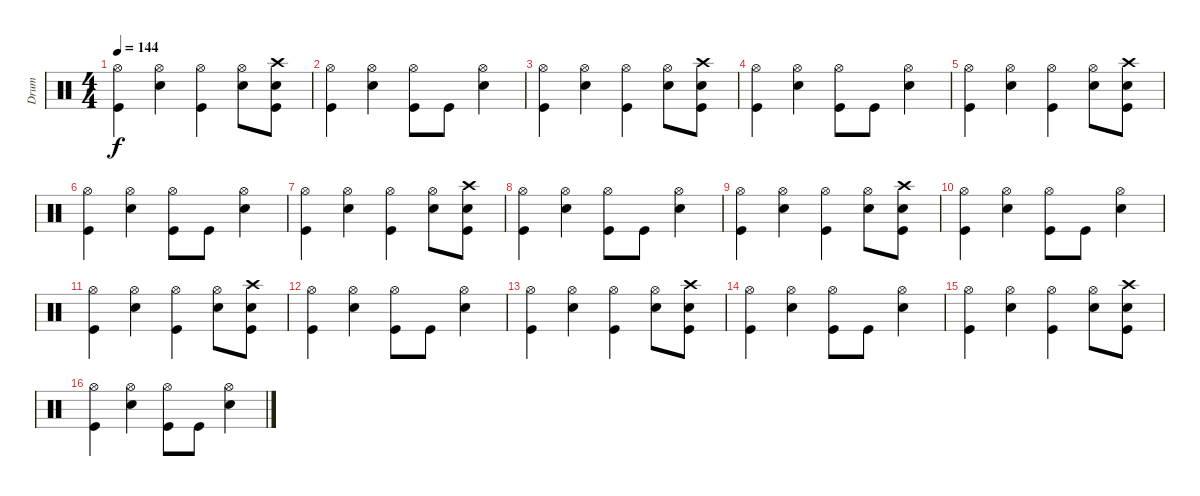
\track ("Drum" "Drum") {instrument percussion}
\staff {score}
\articulation defaults
\ts (4 4)
\tempo 144
\clef neutral
\ks c
("Hi-Hat (open)" "Kick (hit)").4{dy f} ("Hi-Hat (open)" "Electric Snare (hit)").4 ("Hi-Hat (open)" "Kick (hit)").4 ("Hi-Hat (open)" "Electric Snare (hit)").8 ("Crash high (hit)" "Electric Snare (hit)" "Kick (hit)").8 |
("Hi-Hat (open)" "Kick (hit)").4 ("Hi-Hat (open)" "Electric Snare (hit)").4 ("Hi-Hat (open)" "Kick (hit)").8 "Kick (hit)".8 ("Hi-Hat (open)" "Electric Snare (hit)").4 |
("Hi-Hat (open)" "Kick (hit)").4 ("Hi-Hat (open)" "Electric Snare (hit)").4 ("Hi-Hat (open)" "Kick (hit)").4 ("Hi-Hat (open)" "Electric Snare (hit)").8 ("Crash high (hit)" "Electric Snare (hit)" "Kick (hit)").8 |
("Hi-Hat (open)" "Kick (hit)").4 ("Hi-Hat (open)" "Electric Snare (hit)").4 ("Hi-Hat (open)" "Kick (hit)").8 "Kick (hit)".8 ("Hi-Hat (open)" "Electric Snare (hit)").4 |
("Hi-Hat (open)" "Kick (hit)").4 ("Hi-Hat (open)" "Electric Snare (hit)").4 ("Hi-Hat (open)" "Kick (hit)").4 ("Hi-Hat (open)" "Electric Snare (hit)").8 ("Crash high (hit)" "Electric Snare (hit)" "Kick (hit)").8 |
("Hi-Hat (open)" "Kick (hit)").4 ("Hi-Hat (open)" "Electric Snare (hit)").4 ("Hi-Hat (open)" "Kick (hit)").8 "Kick (hit)".8 ("Hi-Hat (open)" "Electric Snare (hit)").4 |
("Hi-Hat (open)" "Kick (hit)").4 ("Hi-Hat (open)" "Electric Snare (hit)").4 ("Hi-Hat (open)" "Kick (hit)").4 ("Hi-Hat (open)" "Electric Snare (hit)").8 ("Crash high (hit)" "Electric Snare (hit)" "Kick (hit)").8 |
("Hi-Hat (open)" "Kick (hit)").4 ("Hi-Hat (open)" "Electric Snare (hit)").4 ("Hi-Hat (open)" "Kick (hit)").8 "Kick (hit)".8 ("Hi-Hat (open)" "Electric Snare (hit)").4 |
("Hi-Hat (open)" "Kick (hit)").4 ("Hi-Hat (open)" "Electric Snare (hit)").4 ("Hi-Hat (open)" "Kick (hit)").4 ("Hi-Hat (open)" "Electric Snare (hit)").8 ("Crash high (hit)" "Electric Snare (hit)" "Kick (hit)").8 |
("Hi-Hat (open)" "Kick (hit)").4 ("Hi-Hat (open)" "Electric Snare (hit)").4 ("Hi-Hat (open)" "Kick (hit)").8 "Kick (hit)".8 ("Hi-Hat (open)" "Electric Snare (hit)").4 |
("Hi-Hat (open)" "Kick (hit)").4 ("Hi-Hat (open)" "Electric Snare (hit)").4 ("Hi-Hat (open)" "Kick (hit)").4 ("Hi-Hat (open)" "Electric Snare (hit)").8 ("Crash high (hit)" "Electric Snare (hit)" "Kick (hit)").8 |
("Hi-Hat (open)" "Kick (hit)").4 ("Hi-Hat (open)" "Electric Snare (hit)").4 ("Hi-Hat (open)" "Kick (hit)").8 "Kick (hit)".8 ("Hi-Hat (open)" "Electric Snare (hit)").4 |
("Hi-Hat (open)" "Kick (hit)").4 ("Hi-Hat (open)" "Electric Snare (hit)").4 ("Hi-Hat (open)" "Kick (hit)").4 ("Hi-Hat (open)" "Electric Snare (hit)").8 ("Crash high (hit)" "Electric Snare (hit)" "Kick (hit)").8 |
("Hi-Hat (open)" "Kick (hit)").4 ("Hi-Hat (open)" "Electric Snare (hit)").4 ("Hi-Hat (open)" "Kick (hit)").8 "Kick (hit)".8 ("Hi-Hat (open)" "Electric Snare (hit)").4 |
("Hi-Hat (open)" "Kick (hit)").4 ("Hi-Hat (open)" "Electric Snare (hit)").4 ("Hi-Hat (open)" "Kick (hit)").4 ("Hi-Hat (open)" "Electric Snare (hit)").8 ("Crash high (hit)" "Electric Snare (hit)" "Kick (hit)").8 |
("Hi-Hat (open)" "Kick (hit)").4 ("Hi-Hat (open)" "Electric Snare (hit)").4 ("Hi-Hat (open)" "Kick (hit)").8 "Kick (hit)".8 ("Hi-Hat (open)" "Electric Snare (hit)").4
